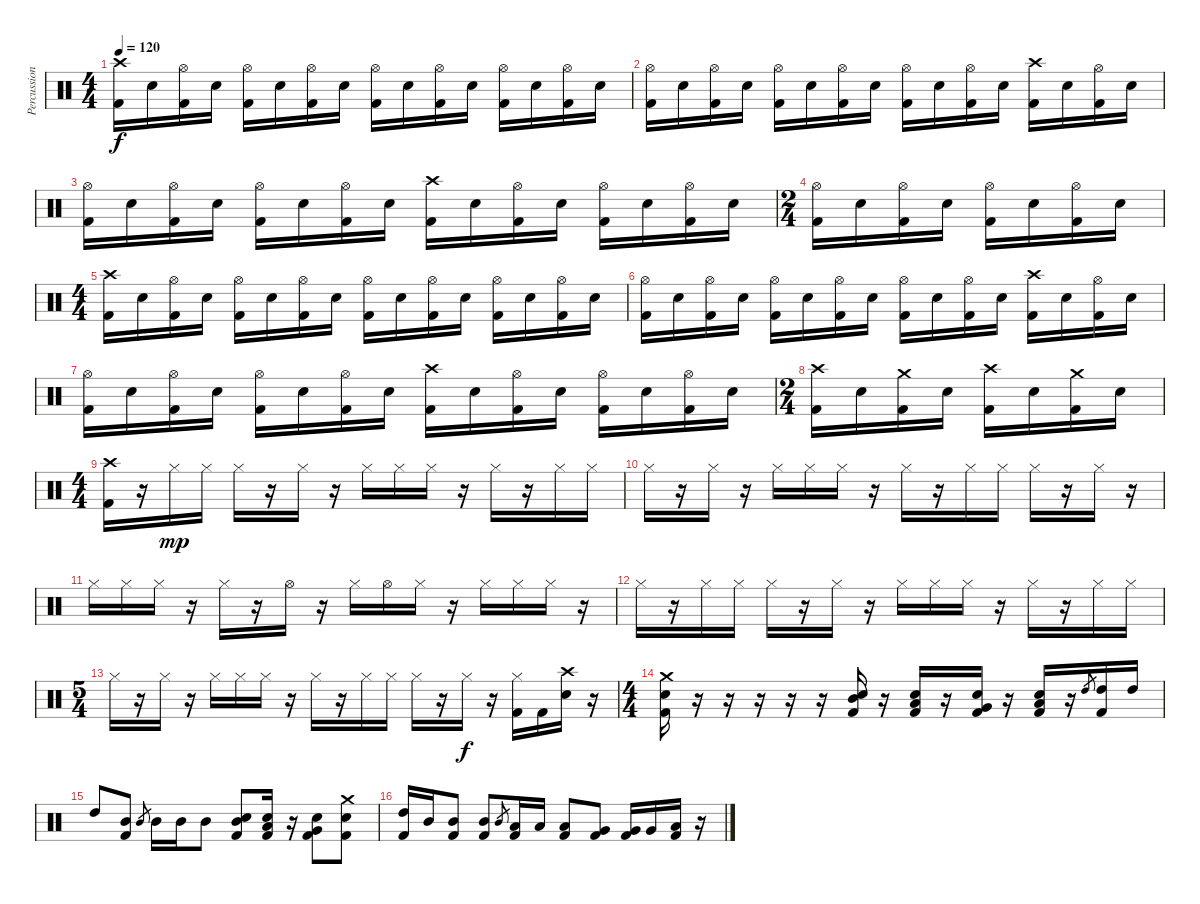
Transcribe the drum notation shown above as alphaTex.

\track ("Percussion" "Percussion") {instrument percussion}
\staff {score}
\articulation defaults
\ts (4 4)
\tempo 120
\clef neutral
\ks c
("Crash high (hit)" "Kick (hit) 2").16{dy f} "Snare (hit) 2".16 ("Hi-Hat (open)" "Kick (hit) 2").16 "Snare (hit) 2".16 ("Hi-Hat (open)" "Kick (hit) 2").16 "Snare (hit) 2".16 ("Hi-Hat (open)" "Kick (hit) 2").16 "Snare (hit) 2".16 ("Hi-Hat (open)" "Kick (hit) 2").16 "Snare (hit) 2".16 ("Hi-Hat (open)" "Kick (hit) 2").16 "Snare (hit) 2".16 ("Hi-Hat (open)" "Kick (hit) 2").16 "Snare (hit) 2".16 ("Hi-Hat (open)" "Kick (hit) 2").16 "Snare (hit) 2".16 |
("Hi-Hat (open)" "Kick (hit) 2").16 "Snare (hit) 2".16 ("Hi-Hat (open)" "Kick (hit) 2").16 "Snare (hit) 2".16 ("Hi-Hat (open)" "Kick (hit) 2").16 "Snare (hit) 2".16 ("Hi-Hat (open)" "Kick (hit) 2").16 "Snare (hit) 2".16 ("Hi-Hat (open)" "Kick (hit) 2").16 "Snare (hit) 2".16 ("Hi-Hat (open)" "Kick (hit) 2").16 "Snare (hit) 2".16 ("Crash high (hit)" "Kick (hit) 2").16 "Snare (hit) 2".16 ("Hi-Hat (open)" "Kick (hit) 2").16 "Snare (hit) 2".16 |
("Hi-Hat (open)" "Kick (hit) 2").16 "Snare (hit) 2".16 ("Hi-Hat (open)" "Kick (hit) 2").16 "Snare (hit) 2".16 ("Hi-Hat (open)" "Kick (hit) 2").16 "Snare (hit) 2".16 ("Hi-Hat (open)" "Kick (hit) 2").16 "Snare (hit) 2".16 ("Crash high (hit)" "Kick (hit) 2").16 "Snare (hit) 2".16 ("Hi-Hat (open)" "Kick (hit) 2").16 "Snare (hit) 2".16 ("Hi-Hat (open)" "Kick (hit) 2").16 "Snare (hit) 2".16 ("Hi-Hat (open)" "Kick (hit) 2").16 "Snare (hit) 2".16 |
\ts (2 4)
("Hi-Hat (open)" "Kick (hit) 2").16 "Snare (hit) 2".16 ("Hi-Hat (open)" "Kick (hit) 2").16 "Snare (hit) 2".16 ("Hi-Hat (open)" "Kick (hit) 2").16 "Snare (hit) 2".16 ("Hi-Hat (open)" "Kick (hit) 2").16 "Snare (hit) 2".16 |
\ts (4 4)
("Crash high (hit)" "Kick (hit) 2").16 "Snare (hit) 2".16 ("Hi-Hat (open)" "Kick (hit) 2").16 "Snare (hit) 2".16 ("Hi-Hat (open)" "Kick (hit) 2").16 "Snare (hit) 2".16 ("Hi-Hat (open)" "Kick (hit) 2").16 "Snare (hit) 2".16 ("Hi-Hat (open)" "Kick (hit) 2").16 "Snare (hit) 2".16 ("Hi-Hat (open)" "Kick (hit) 2").16 "Snare (hit) 2".16 ("Hi-Hat (open)" "Kick (hit) 2").16 "Snare (hit) 2".16 ("Hi-Hat (open)" "Kick (hit) 2").16 "Snare (hit) 2".16 |
("Hi-Hat (open)" "Kick (hit) 2").16 "Snare (hit) 2".16 ("Hi-Hat (open)" "Kick (hit) 2").16 "Snare (hit) 2".16 ("Hi-Hat (open)" "Kick (hit) 2").16 "Snare (hit) 2".16 ("Hi-Hat (open)" "Kick (hit) 2").16 "Snare (hit) 2".16 ("Hi-Hat (open)" "Kick (hit) 2").16 "Snare (hit) 2".16 ("Hi-Hat (open)" "Kick (hit) 2").16 "Snare (hit) 2".16 ("Crash high (hit)" "Kick (hit) 2").16 "Snare (hit) 2".16 ("Hi-Hat (open)" "Kick (hit) 2").16 "Snare (hit) 2".16 |
("Hi-Hat (open)" "Kick (hit) 2").16 "Snare (hit) 2".16 ("Hi-Hat (open)" "Kick (hit) 2").16 "Snare (hit) 2".16 ("Hi-Hat (open)" "Kick (hit) 2").16 "Snare (hit) 2".16 ("Hi-Hat (open)" "Kick (hit) 2").16 "Snare (hit) 2".16 ("Crash high (hit)" "Kick (hit) 2").16 "Snare (hit) 2".16 ("Hi-Hat (open)" "Kick (hit) 2").16 "Snare (hit) 2".16 ("Hi-Hat (open)" "Kick (hit) 2").16 "Snare (hit) 2".16 ("Hi-Hat (open)" "Kick (hit) 2").16 "Snare (hit) 2".16 |
\ts (2 4)
("Crash high (hit)" "Kick (hit) 2").16 "Snare (hit) 2".16 ("Crash medium (hit)" "Kick (hit) 2").16 "Snare (hit) 2".16 ("Crash high (hit)" "Kick (hit) 2").16 "Snare (hit) 2".16 ("Crash medium (hit)" "Kick (hit) 2").16 "Snare (hit) 2".16 |
\ts (4 4)
("Crash high (hit)" "Kick (hit) 2").16 r.16 "Hi-Hat (closed)".16{dy mp} "Hi-Hat (closed)".16 "Hi-Hat (closed)".16 r.16 "Hi-Hat (closed)".16 r.16 "Hi-Hat (closed)".16 "Hi-Hat (closed)".16 "Hi-Hat (closed)".16 r.16 "Hi-Hat (closed)".16 r.16 "Hi-Hat (closed)".16 "Hi-Hat (closed)".16 |
"Hi-Hat (closed)".16 r.16 "Hi-Hat (closed)".16 r.16 "Hi-Hat (closed)".16 "Hi-Hat (closed)".16 "Hi-Hat (closed)".16 r.16 "Hi-Hat (closed)".16 r.16 "Hi-Hat (closed)".16 "Hi-Hat (closed)".16 "Hi-Hat (closed)".16 r.16 "Hi-Hat (closed)".16 r.16 |
"Hi-Hat (closed)".16 "Hi-Hat (closed)".16 "Hi-Hat (closed)".16 r.16 "Hi-Hat (closed)".16 r.16 "Hi-Hat (open)".16 r.16 "Hi-Hat (closed)".16 "Hi-Hat (open)".16 "Hi-Hat (closed)".16 r.16 "Hi-Hat (closed)".16 "Hi-Hat (closed)".16 "Hi-Hat (closed)".16 r.16 |
"Hi-Hat (closed)".16 r.16 "Hi-Hat (closed)".16 "Hi-Hat (closed)".16 "Hi-Hat (closed)".16 r.16 "Hi-Hat (closed)".16 r.16 "Hi-Hat (closed)".16 "Hi-Hat (closed)".16 "Hi-Hat (closed)".16 r.16 "Hi-Hat (closed)".16 r.16 "Hi-Hat (closed)".16 "Hi-Hat (closed)".16 |
\ts (5 4)
"Hi-Hat (closed)".16 r.16 "Hi-Hat (closed)".16 r.16 "Hi-Hat (closed)".16 "Hi-Hat (closed)".16 "Hi-Hat (closed)".16 r.16 "Hi-Hat (closed)".16 r.16 "Hi-Hat (closed)".16 "Hi-Hat (closed)".16 "Hi-Hat (closed)".16 r.16 "Hi-Hat (closed)".16{dy f} r.16 ("Hi-Hat (closed)" "Kick (hit) 2").16 "Kick (hit) 2".16 ("Crash high (hit)" "Snare (hit) 2").16 r.16 |
\ts (4 4)
("Crash medium (hit)" "Snare (hit) 2" "Kick (hit) 2").16 r.16 r.16 r.16 r.16 r.16 ("Mid Tom (hit)" "Snare (hit) 2" "Kick (hit) 2").16 r.16 ("Low Tom (hit)" "Snare (hit) 2" "Kick (hit) 2").16 r.16 ("Very Low Tom (hit)" "Snare (hit) 2" "Kick (hit) 2").16 r.16 ("Low Floor Tom (hit)" "Snare (hit) 2" "Kick (hit) 2").16 r.16 "High Tom (hit)".8{gr} ("High Tom (hit)" "Kick (hit) 2").16 "High Tom (hit)".16 |
"High Tom (hit)".8 ("Mid Tom (hit)" "Kick (hit) 2").8 "Mid Tom (hit)".8{gr} "Mid Tom (hit)".16 "Mid Tom (hit)".16 "Mid Tom (hit)".8 ("Mid Tom (hit)" "Snare (hit) 2" "Kick (hit) 2").8 ("Low Tom (hit)" "Snare (hit) 2" "Kick (hit) 2").16 r.16 ("Very Low Tom (hit)" "Snare (hit) 2" "Kick (hit) 2").8 ("Crash medium (hit)" "Snare (hit) 2" "Kick (hit) 2").8 |
("High Tom (hit)" "Kick (hit) 2").16 "Mid Tom (hit)".16 ("Mid Tom (hit)" "Kick (hit) 2").8 ("Mid Tom (hit)" "Kick (hit) 2").8 "Mid Tom (hit)".8{gr} ("Low Tom (hit)" "Kick (hit) 2").16 "Low Tom (hit)".16 ("Low Tom (hit)" "Kick (hit) 2").8 ("Very Low Tom (hit)" "Kick (hit) 2").8 ("Very Low Tom (hit)" "Kick (hit) 2").16 "Very Low Tom (hit)".16 ("Low Floor Tom (hit)" "Kick (hit) 2").16 r.16
